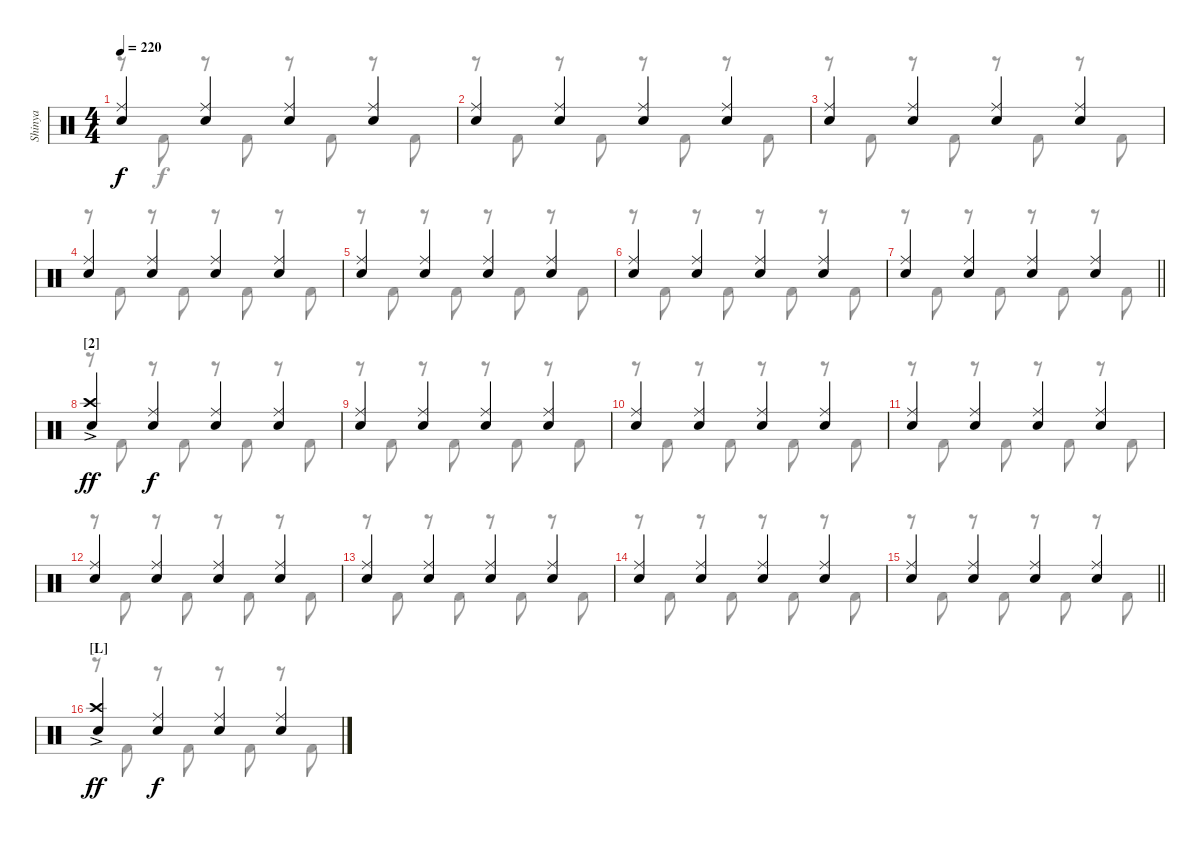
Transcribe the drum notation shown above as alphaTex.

\track ("Shinya" "Shinya") {instrument percussion}
\staff {score}
\articulation defaults
\voice
\ts (4 4)
\tempo 220
\clef neutral
\ks c
("Ride (middle)" "Snare (hit) 2").4{dy f} ("Ride (middle)" "Snare (hit) 2").4 ("Ride (middle)" "Snare (hit) 2").4 ("Ride (middle)" "Snare (hit) 2").4 |
("Ride (middle)" "Snare (hit) 2").4 ("Ride (middle)" "Snare (hit) 2").4 ("Ride (middle)" "Snare (hit) 2").4 ("Ride (middle)" "Snare (hit) 2").4 |
("Ride (middle)" "Snare (hit) 2").4 ("Ride (middle)" "Snare (hit) 2").4 ("Ride (middle)" "Snare (hit) 2").4 ("Ride (middle)" "Snare (hit) 2").4 |
("Ride (middle)" "Snare (hit) 2").4 ("Ride (middle)" "Snare (hit) 2").4 ("Ride (middle)" "Snare (hit) 2").4 ("Ride (middle)" "Snare (hit) 2").4 |
("Ride (middle)" "Snare (hit) 2").4 ("Ride (middle)" "Snare (hit) 2").4 ("Ride (middle)" "Snare (hit) 2").4 ("Ride (middle)" "Snare (hit) 2").4 |
("Ride (middle)" "Snare (hit) 2").4 ("Ride (middle)" "Snare (hit) 2").4 ("Ride (middle)" "Snare (hit) 2").4 ("Ride (middle)" "Snare (hit) 2").4 |
\barLineRight lightlight
("Ride (middle)" "Snare (hit) 2").4 ("Ride (middle)" "Snare (hit) 2").4 ("Ride (middle)" "Snare (hit) 2").4 ("Ride (middle)" "Snare (hit) 2").4 |
\section ("" "[2]")
("Crash high (hit)"{ac} "Snare (hit) 2").4{dy ff} ("Ride (middle)" "Snare (hit) 2").4{dy f} ("Ride (middle)" "Snare (hit) 2").4 ("Ride (middle)" "Snare (hit) 2").4 |
("Ride (middle)" "Snare (hit) 2").4 ("Ride (middle)" "Snare (hit) 2").4 ("Ride (middle)" "Snare (hit) 2").4 ("Ride (middle)" "Snare (hit) 2").4 |
("Ride (middle)" "Snare (hit) 2").4 ("Ride (middle)" "Snare (hit) 2").4 ("Ride (middle)" "Snare (hit) 2").4 ("Ride (middle)" "Snare (hit) 2").4 |
("Ride (middle)" "Snare (hit) 2").4 ("Ride (middle)" "Snare (hit) 2").4 ("Ride (middle)" "Snare (hit) 2").4 ("Ride (middle)" "Snare (hit) 2").4 |
("Ride (middle)" "Snare (hit) 2").4 ("Ride (middle)" "Snare (hit) 2").4 ("Ride (middle)" "Snare (hit) 2").4 ("Ride (middle)" "Snare (hit) 2").4 |
("Ride (middle)" "Snare (hit) 2").4 ("Ride (middle)" "Snare (hit) 2").4 ("Ride (middle)" "Snare (hit) 2").4 ("Ride (middle)" "Snare (hit) 2").4 |
("Ride (middle)" "Snare (hit) 2").4 ("Ride (middle)" "Snare (hit) 2").4 ("Ride (middle)" "Snare (hit) 2").4 ("Ride (middle)" "Snare (hit) 2").4 |
\barLineRight lightlight
("Ride (middle)" "Snare (hit) 2").4 ("Ride (middle)" "Snare (hit) 2").4 ("Ride (middle)" "Snare (hit) 2").4 ("Ride (middle)" "Snare (hit) 2").4 |
\section ("" "[L]")
("Crash high (hit)"{ac} "Snare (hit) 2").4{dy ff} ("Ride (middle)" "Snare (hit) 2").4{dy f} ("Ride (middle)" "Snare (hit) 2").4 ("Ride (middle)" "Snare (hit) 2").4
\voice
\clef neutral
\ottava regular
\simile none
\ks c
r.8{dy f} "Kick (hit) 2".8 r.8 "Kick (hit) 2".8 r.8 "Kick (hit) 2".8 r.8 "Kick (hit) 2".8 |
r.8 "Kick (hit) 2".8 r.8 "Kick (hit) 2".8 r.8 "Kick (hit) 2".8 r.8 "Kick (hit) 2".8 |
r.8 "Kick (hit) 2".8 r.8 "Kick (hit) 2".8 r.8 "Kick (hit) 2".8 r.8 "Kick (hit) 2".8 |
r.8 "Kick (hit) 2".8 r.8 "Kick (hit) 2".8 r.8 "Kick (hit) 2".8 r.8 "Kick (hit) 2".8 |
r.8 "Kick (hit) 2".8 r.8 "Kick (hit) 2".8 r.8 "Kick (hit) 2".8 r.8 "Kick (hit) 2".8 |
r.8 "Kick (hit) 2".8 r.8 "Kick (hit) 2".8 r.8 "Kick (hit) 2".8 r.8 "Kick (hit) 2".8 |
\barLineRight lightlight
r.8 "Kick (hit) 2".8 r.8 "Kick (hit) 2".8 r.8 "Kick (hit) 2".8 r.8 "Kick (hit) 2".8 |
r.8 "Kick (hit) 2".8 r.8 "Kick (hit) 2".8 r.8 "Kick (hit) 2".8 r.8 "Kick (hit) 2".8 |
r.8 "Kick (hit) 2".8 r.8 "Kick (hit) 2".8 r.8 "Kick (hit) 2".8 r.8 "Kick (hit) 2".8 |
r.8 "Kick (hit) 2".8 r.8 "Kick (hit) 2".8 r.8 "Kick (hit) 2".8 r.8 "Kick (hit) 2".8 |
r.8 "Kick (hit) 2".8 r.8 "Kick (hit) 2".8 r.8 "Kick (hit) 2".8 r.8 "Kick (hit) 2".8 |
r.8 "Kick (hit) 2".8 r.8 "Kick (hit) 2".8 r.8 "Kick (hit) 2".8 r.8 "Kick (hit) 2".8 |
r.8 "Kick (hit) 2".8 r.8 "Kick (hit) 2".8 r.8 "Kick (hit) 2".8 r.8 "Kick (hit) 2".8 |
r.8 "Kick (hit) 2".8 r.8 "Kick (hit) 2".8 r.8 "Kick (hit) 2".8 r.8 "Kick (hit) 2".8 |
\barLineRight lightlight
r.8 "Kick (hit) 2".8 r.8 "Kick (hit) 2".8 r.8 "Kick (hit) 2".8 r.8 "Kick (hit) 2".8 |
r.8 "Kick (hit) 2".8 r.8 "Kick (hit) 2".8 r.8 "Kick (hit) 2".8 r.8 "Kick (hit) 2".8
